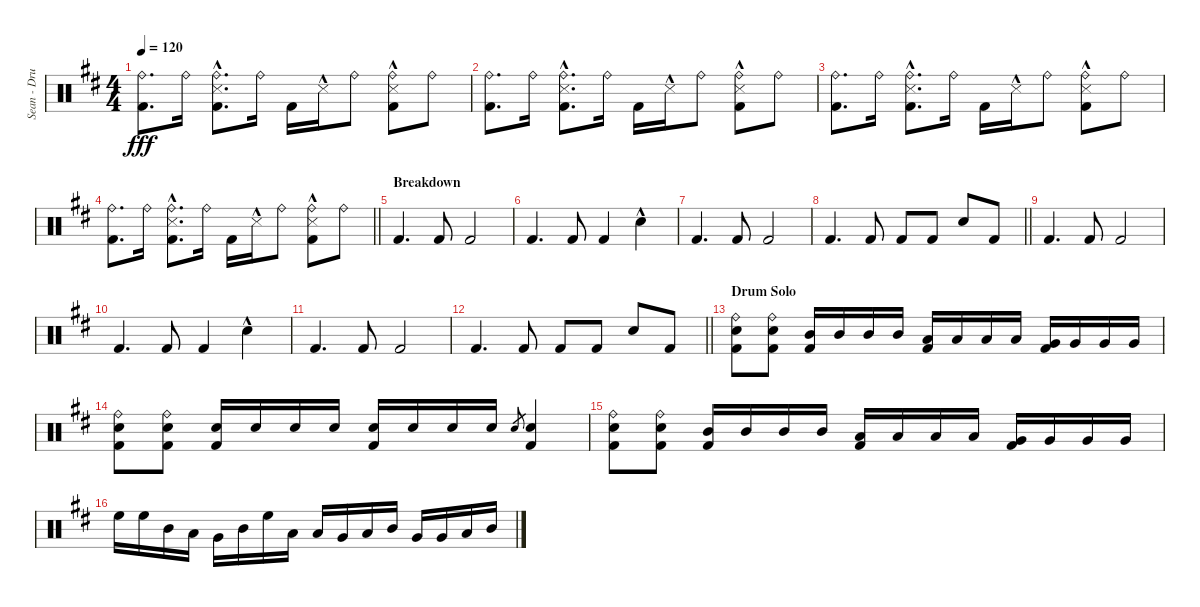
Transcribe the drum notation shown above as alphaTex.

\track ("Sean - Drums" "Sean - Dru") {instrument percussion}
\staff {score}
\articulation defaults
\ts (4 4)
\tempo 120
\clef neutral
\ks d
("Ride (bell)" "Kick (hit) 2").8{d dy fff} "Ride (bell)".16 ("Ride (bell)" "Metronome (hit)"{hac} "Kick (hit) 2").8{d} "Ride (bell)".16 "Kick (hit) 2".16 "Metronome (hit)"{hac}.16 "Ride (bell)".8 ("Ride (bell)" "Metronome (hit)"{hac} "Kick (hit) 2").8 "Ride (bell)".8 |
("Ride (bell)" "Kick (hit) 2").8{d} "Ride (bell)".16 ("Ride (bell)" "Metronome (hit)"{hac} "Kick (hit) 2").8{d} "Ride (bell)".16 "Kick (hit) 2".16 "Metronome (hit)"{hac}.16 "Ride (bell)".8 ("Ride (bell)" "Metronome (hit)"{hac} "Kick (hit) 2").8 "Ride (bell)".8 |
("Ride (bell)" "Kick (hit) 2").8{d} "Ride (bell)".16 ("Ride (bell)" "Metronome (hit)"{hac} "Kick (hit) 2").8{d} "Ride (bell)".16 "Kick (hit) 2".16 "Metronome (hit)"{hac}.16 "Ride (bell)".8 ("Ride (bell)" "Metronome (hit)"{hac} "Kick (hit) 2").8 "Ride (bell)".8 |
\barLineRight lightlight
("Ride (bell)" "Kick (hit) 2").8{d} "Ride (bell)".16 ("Ride (bell)" "Metronome (hit)"{hac} "Kick (hit) 2").8{d} "Ride (bell)".16 "Kick (hit) 2".16 "Metronome (hit)"{hac}.16 "Ride (bell)".8 ("Ride (bell)" "Metronome (hit)"{hac} "Kick (hit) 2").8 "Ride (bell)".8 |
\section ("" "Breakdown")
"Kick (hit) 2".4{d} "Kick (hit) 2".8 "Kick (hit) 2".2 |
"Kick (hit) 2".4{d} "Kick (hit) 2".8 "Kick (hit) 2".4 "Snare (hit) 2"{hac}.4 |
"Kick (hit) 2".4{d} "Kick (hit) 2".8 "Kick (hit) 2".2 |
\barLineRight lightlight "Kick (hit) 2".4{d} "Kick (hit) 2".8 "Kick (hit) 2".8 "Kick (hit) 2".8 "Snare (hit) 2".8 "Kick (hit) 2".8
|
"Kick (hit) 2".4{d} "Kick (hit) 2".8 "Kick (hit) 2".2 |
"Kick (hit) 2".4{d} "Kick (hit) 2".8 "Kick (hit) 2".4 "Snare (hit) 2"{hac}.4 |
"Kick (hit) 2".4{d} "Kick (hit) 2".8 "Kick (hit) 2".2 |
\barLineRight lightlight "Kick (hit) 2".4{d} "Kick (hit) 2".8 "Kick (hit) 2".8 "Kick (hit) 2".8 "Snare (hit) 2".8 "Kick (hit) 2".8
|
\section ("" "Drum Solo")
("Ride (bell)" "Snare (hit) 2" "Kick (hit) 2").8 ("Ride (bell)" "Snare (hit) 2" "Kick (hit) 2").8 ("Mid Tom (hit)" "Kick (hit) 2").16 "Mid Tom (hit)".16 "Mid Tom (hit)".16 "Mid Tom (hit)".16 ("Low Tom (hit)" "Kick (hit) 2").16 "Low Tom (hit)".16 "Low Tom (hit)".16 "Low Tom (hit)".16 ("Very Low Tom (hit)" "Kick (hit) 2").16 "Very Low Tom (hit)".16 "Very Low Tom (hit)".16 "Very Low Tom (hit)".16 |
("Ride (bell)" "Snare (hit) 2" "Kick (hit) 2").8 ("Ride (bell)" "Snare (hit) 2" "Kick (hit) 2").8 ("Snare (hit) 2" "Kick (hit) 2").16 "Snare (hit) 2".16 "Snare (hit) 2".16 "Snare (hit) 2".16 ("Snare (hit) 2" "Kick (hit) 2").16 "Snare (hit) 2".16 "Snare (hit) 2".16 "Snare (hit) 2".16 "Snare (hit) 2".8{gr} ("Snare (hit) 2" "Kick (hit) 2").4 |
("Ride (bell)" "Snare (hit) 2" "Kick (hit) 2").8 ("Ride (bell)" "Snare (hit) 2" "Kick (hit) 2").8 ("Mid Tom (hit)" "Kick (hit) 2").16 "Mid Tom (hit)".16 "Mid Tom (hit)".16 "Mid Tom (hit)".16 ("Low Tom (hit)" "Kick (hit) 2").16 "Low Tom (hit)".16 "Low Tom (hit)".16 "Low Tom (hit)".16 ("Very Low Tom (hit)" "Kick (hit) 2").16 "Very Low Tom (hit)".16 "Very Low Tom (hit)".16 "Very Low Tom (hit)".16 |
"High Floor Tom (hit)".16 "High Floor Tom (hit)".16 "Mid Tom (hit)".16 "Low Tom (hit)".16 "Very Low Tom (hit)".16 "Mid Tom (hit)".16 "High Floor Tom (hit)".16 "Low Floor Tom (hit)".16 "Low Tom (hit)".16 "Very Low Tom (hit)".16 "Low Tom (hit)".16 "Mid Tom (hit)".16 "Very Low Tom (hit)".16 "Very Low Tom (hit)".16 "Low Tom (hit)".16 "Mid Tom (hit)".16
